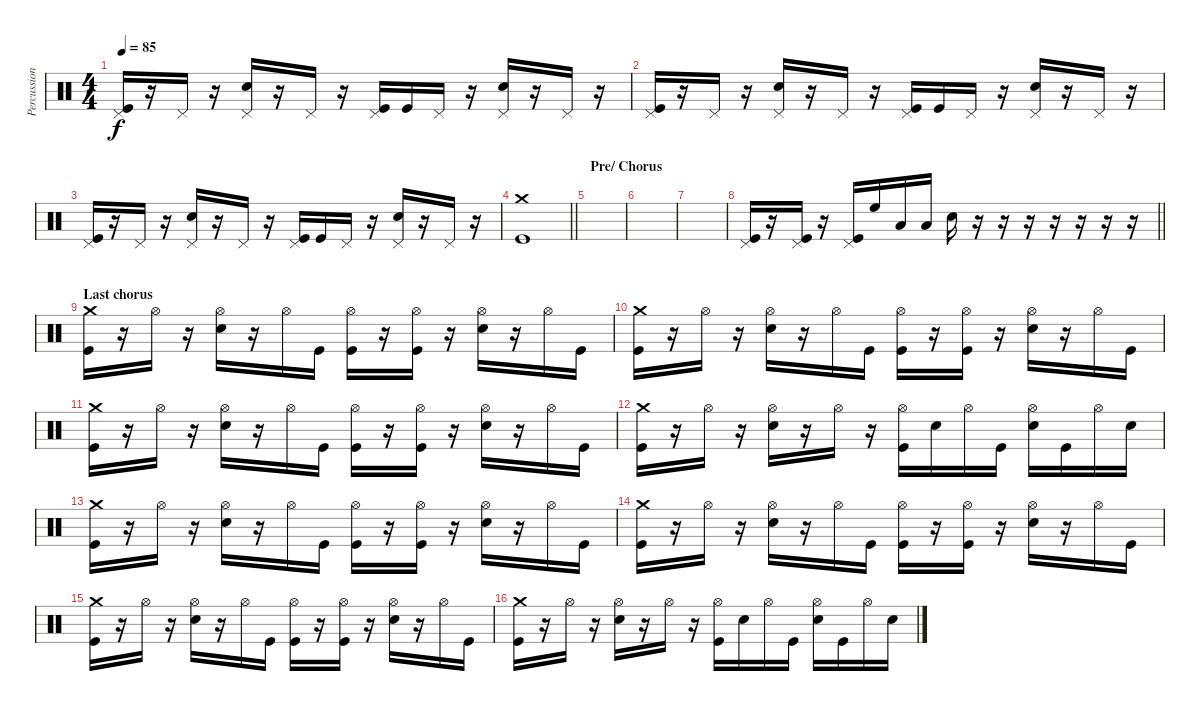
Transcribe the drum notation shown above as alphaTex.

\track ("Percussion" "Percussion") {instrument percussion}
\staff {score}
\articulation defaults
\ts (4 4)
\tempo 85
\clef neutral
\ks c
("Pedal Hi-Hat (hit)" "Kick (hit)").16{dy f} r.16 "Pedal Hi-Hat (hit)".16 r.16 ("Pedal Hi-Hat (hit)" "Snare (hit) 2").16 r.16 "Pedal Hi-Hat (hit)".16 r.16 ("Pedal Hi-Hat (hit)" "Kick (hit)").16 "Kick (hit)".16 "Pedal Hi-Hat (hit)".16 r.16 ("Pedal Hi-Hat (hit)" "Snare (hit) 2").16 r.16 "Pedal Hi-Hat (hit)".16 r.16 |
("Pedal Hi-Hat (hit)" "Kick (hit)").16 r.16 "Pedal Hi-Hat (hit)".16 r.16 ("Pedal Hi-Hat (hit)" "Snare (hit) 2").16 r.16 "Pedal Hi-Hat (hit)".16 r.16 ("Pedal Hi-Hat (hit)" "Kick (hit)").16 "Kick (hit)".16 "Pedal Hi-Hat (hit)".16 r.16 ("Pedal Hi-Hat (hit)" "Snare (hit) 2").16 r.16 "Pedal Hi-Hat (hit)".16 r.16 |
("Pedal Hi-Hat (hit)" "Kick (hit)").16 r.16 "Pedal Hi-Hat (hit)".16 r.16 ("Pedal Hi-Hat (hit)" "Snare (hit) 2").16 r.16 "Pedal Hi-Hat (hit)".16 r.16 ("Pedal Hi-Hat (hit)" "Kick (hit)").16 "Kick (hit)".16 "Pedal Hi-Hat (hit)".16 r.16 ("Pedal Hi-Hat (hit)" "Snare (hit) 2").16 r.16 "Pedal Hi-Hat (hit)".16 r.16 |
\barLineRight lightlight
("Crash medium (hit)" "Kick (hit)").1 |
\section ("" "Pre/ Chorus")
|
|
|
\barLineRight lightlight
("Pedal Hi-Hat (hit)" "Kick (hit)").16 r.16 ("Pedal Hi-Hat (hit)" "Kick (hit)").16 r.16 ("Pedal Hi-Hat (hit)" "Kick (hit)").16 "High Floor Tom (hit)".16 "Low Tom (hit)".16 "Low Tom (hit)".16 "Snare (hit) 2".16 r.16 r.16 r.16 r.16 r.16 r.16 r.16 |
\section ("" "Last chorus")
("Crash medium (hit)" "Kick (hit)").16 r.16 "Hi-Hat (open)".16 r.16 ("Hi-Hat (open)" "Snare (hit) 2").16 r.16 "Hi-Hat (open)".16 "Kick (hit)".16 ("Hi-Hat (open)" "Kick (hit)").16 r.16 ("Hi-Hat (open)" "Kick (hit)").16 r.16 ("Hi-Hat (open)" "Snare (hit) 2").16 r.16 "Hi-Hat (open)".16 "Kick (hit)".16 |
("Crash medium (hit)" "Kick (hit)").16 r.16 "Hi-Hat (open)".16 r.16 ("Hi-Hat (open)" "Snare (hit) 2").16 r.16 "Hi-Hat (open)".16 "Kick (hit)".16 ("Hi-Hat (open)" "Kick (hit)").16 r.16 ("Hi-Hat (open)" "Kick (hit)").16 r.16 ("Hi-Hat (open)" "Snare (hit) 2").16 r.16 "Hi-Hat (open)".16 "Kick (hit)".16 |
("Crash medium (hit)" "Kick (hit)").16 r.16 "Hi-Hat (open)".16 r.16 ("Hi-Hat (open)" "Snare (hit) 2").16 r.16 "Hi-Hat (open)".16 "Kick (hit)".16 ("Hi-Hat (open)" "Kick (hit)").16 r.16 ("Hi-Hat (open)" "Kick (hit)").16 r.16 ("Hi-Hat (open)" "Snare (hit) 2").16 r.16 "Hi-Hat (open)".16 "Kick (hit)".16 |
("Crash medium (hit)" "Kick (hit)").16 r.16 "Hi-Hat (open)".16 r.16 ("Hi-Hat (open)" "Snare (hit) 2").16 r.16 "Hi-Hat (open)".16 r.16 ("Hi-Hat (open)" "Kick (hit)").16 "Snare (hit) 2".16 "Hi-Hat (open)".16 "Kick (hit)".16 ("Hi-Hat (open)" "Snare (hit) 2").16 "Kick (hit)".16 "Hi-Hat (open)".16 "Snare (hit) 2".16 |
("Crash medium (hit)" "Kick (hit)").16 r.16 "Hi-Hat (open)".16 r.16 ("Hi-Hat (open)" "Snare (hit) 2").16 r.16 "Hi-Hat (open)".16 "Kick (hit)".16 ("Hi-Hat (open)" "Kick (hit)").16 r.16 ("Hi-Hat (open)" "Kick (hit)").16 r.16 ("Hi-Hat (open)" "Snare (hit) 2").16 r.16 "Hi-Hat (open)".16 "Kick (hit)".16 |
("Crash medium (hit)" "Kick (hit)").16 r.16 "Hi-Hat (open)".16 r.16 ("Hi-Hat (open)" "Snare (hit) 2").16 r.16 "Hi-Hat (open)".16 "Kick (hit)".16 ("Hi-Hat (open)" "Kick (hit)").16 r.16 ("Hi-Hat (open)" "Kick (hit)").16 r.16 ("Hi-Hat (open)" "Snare (hit) 2").16 r.16 "Hi-Hat (open)".16 "Kick (hit)".16 |
("Crash medium (hit)" "Kick (hit)").16 r.16 "Hi-Hat (open)".16 r.16 ("Hi-Hat (open)" "Snare (hit) 2").16 r.16 "Hi-Hat (open)".16 "Kick (hit)".16 ("Hi-Hat (open)" "Kick (hit)").16 r.16 ("Hi-Hat (open)" "Kick (hit)").16 r.16 ("Hi-Hat (open)" "Snare (hit) 2").16 r.16 "Hi-Hat (open)".16 "Kick (hit)".16 |
("Crash medium (hit)" "Kick (hit)").16 r.16 "Hi-Hat (open)".16 r.16 ("Hi-Hat (open)" "Snare (hit) 2").16 r.16 "Hi-Hat (open)".16 r.16 ("Hi-Hat (open)" "Kick (hit)").16 "Snare (hit) 2".16 "Hi-Hat (open)".16 "Kick (hit)".16 ("Hi-Hat (open)" "Snare (hit) 2").16 "Kick (hit)".16 "Hi-Hat (open)".16 "Snare (hit) 2".16
